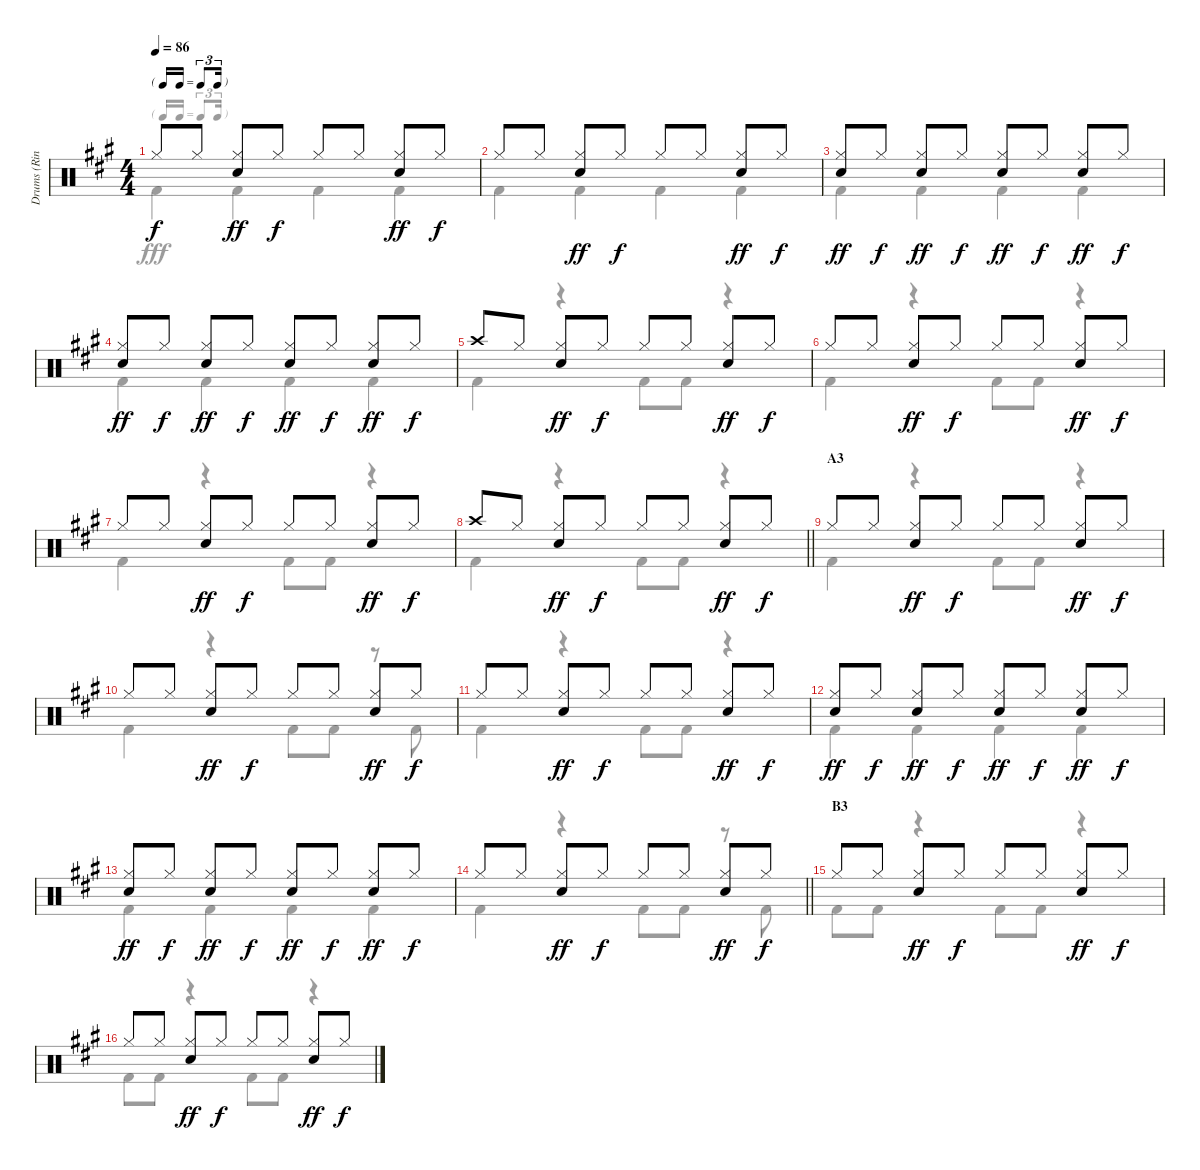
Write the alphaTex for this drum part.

\track ("Drums (Ringo Starr)" "Drums (Rin") {instrument percussion}
\staff {score}
\articulation defaults
\voice
\ts (4 4)
\tf triplet16th
\tempo 86
\clef neutral
\ks a "Hi-Hat (closed)".8{dy f} "Hi-Hat (closed)".8
("Hi-Hat (closed)" "Snare (hit) 2").8{dy ff} "Hi-Hat (closed)".8{dy f} "Hi-Hat (closed)".8 "Hi-Hat (closed)".8 ("Hi-Hat (closed)" "Snare (hit) 2").8{dy ff} "Hi-Hat (closed)".8{dy f} |
"Hi-Hat (closed)".8 "Hi-Hat (closed)".8 ("Hi-Hat (closed)" "Snare (hit) 2").8{dy ff} "Hi-Hat (closed)".8{dy f} "Hi-Hat (closed)".8 "Hi-Hat (closed)".8 ("Hi-Hat (closed)" "Snare (hit) 2").8{dy ff} "Hi-Hat (closed)".8{dy f} |
("Hi-Hat (closed)" "Snare (hit) 2").8{dy ff} "Hi-Hat (closed)".8{dy f} ("Hi-Hat (closed)" "Snare (hit) 2").8{dy ff} "Hi-Hat (closed)".8{dy f} ("Hi-Hat (closed)" "Snare (hit) 2").8{dy ff} "Hi-Hat (closed)".8{dy f} ("Hi-Hat (closed)" "Snare (hit) 2").8{dy ff} "Hi-Hat (closed)".8{dy f} |
("Hi-Hat (closed)" "Snare (hit) 2").8{dy ff} "Hi-Hat (closed)".8{dy f} ("Hi-Hat (closed)" "Snare (hit) 2").8{dy ff} "Hi-Hat (closed)".8{dy f} ("Hi-Hat (closed)" "Snare (hit) 2").8{dy ff} "Hi-Hat (closed)".8{dy f} ("Hi-Hat (closed)" "Snare (hit) 2").8{dy ff} "Hi-Hat (closed)".8{dy f} |
"Crash high (hit)".8 "Hi-Hat (closed)".8 ("Hi-Hat (closed)" "Snare (hit) 2").8{dy ff} "Hi-Hat (closed)".8{dy f} "Hi-Hat (closed)".8 "Hi-Hat (closed)".8 ("Hi-Hat (closed)" "Snare (hit) 2").8{dy ff} "Hi-Hat (closed)".8{dy f} |
"Hi-Hat (closed)".8 "Hi-Hat (closed)".8 ("Hi-Hat (closed)" "Snare (hit) 2").8{dy ff} "Hi-Hat (closed)".8{dy f} "Hi-Hat (closed)".8 "Hi-Hat (closed)".8 ("Hi-Hat (closed)" "Snare (hit) 2").8{dy ff} "Hi-Hat (closed)".8{dy f} |
"Hi-Hat (closed)".8 "Hi-Hat (closed)".8 ("Hi-Hat (closed)" "Snare (hit) 2").8{dy ff} "Hi-Hat (closed)".8{dy f} "Hi-Hat (closed)".8 "Hi-Hat (closed)".8 ("Hi-Hat (closed)" "Snare (hit) 2").8{dy ff} "Hi-Hat (closed)".8{dy f} |
\barLineRight lightlight "Crash high (hit)".8 "Hi-Hat (closed)".8
("Hi-Hat (closed)" "Snare (hit) 2").8{dy ff} "Hi-Hat (closed)".8{dy f} "Hi-Hat (closed)".8 "Hi-Hat (closed)".8 ("Hi-Hat (closed)" "Snare (hit) 2").8{dy ff} "Hi-Hat (closed)".8{dy f} |
\section ("" "A3")
"Hi-Hat (closed)".8 "Hi-Hat (closed)".8 ("Hi-Hat (closed)" "Snare (hit) 2").8{dy ff} "Hi-Hat (closed)".8{dy f} "Hi-Hat (closed)".8 "Hi-Hat (closed)".8 ("Hi-Hat (closed)" "Snare (hit) 2").8{dy ff} "Hi-Hat (closed)".8{dy f} |
"Hi-Hat (closed)".8 "Hi-Hat (closed)".8 ("Hi-Hat (closed)" "Snare (hit) 2").8{dy ff} "Hi-Hat (closed)".8{dy f} "Hi-Hat (closed)".8 "Hi-Hat (closed)".8 ("Hi-Hat (closed)" "Snare (hit) 2").8{dy ff} "Hi-Hat (closed)".8{dy f} |
"Hi-Hat (closed)".8 "Hi-Hat (closed)".8 ("Hi-Hat (closed)" "Snare (hit) 2").8{dy ff} "Hi-Hat (closed)".8{dy f} "Hi-Hat (closed)".8 "Hi-Hat (closed)".8 ("Hi-Hat (closed)" "Snare (hit) 2").8{dy ff} "Hi-Hat (closed)".8{dy f} |
("Hi-Hat (closed)" "Snare (hit) 2").8{dy ff} "Hi-Hat (closed)".8{dy f} ("Hi-Hat (closed)" "Snare (hit) 2").8{dy ff} "Hi-Hat (closed)".8{dy f} ("Hi-Hat (closed)" "Snare (hit) 2").8{dy ff} "Hi-Hat (closed)".8{dy f} ("Hi-Hat (closed)" "Snare (hit) 2").8{dy ff} "Hi-Hat (closed)".8{dy f} |
("Hi-Hat (closed)" "Snare (hit) 2").8{dy ff} "Hi-Hat (closed)".8{dy f} ("Hi-Hat (closed)" "Snare (hit) 2").8{dy ff} "Hi-Hat (closed)".8{dy f} ("Hi-Hat (closed)" "Snare (hit) 2").8{dy ff} "Hi-Hat (closed)".8{dy f} ("Hi-Hat (closed)" "Snare (hit) 2").8{dy ff} "Hi-Hat (closed)".8{dy f} |
\barLineRight lightlight "Hi-Hat (closed)".8 "Hi-Hat (closed)".8
("Hi-Hat (closed)" "Snare (hit) 2").8{dy ff} "Hi-Hat (closed)".8{dy f} "Hi-Hat (closed)".8 "Hi-Hat (closed)".8 ("Hi-Hat (closed)" "Snare (hit) 2").8{dy ff} "Hi-Hat (closed)".8{dy f} |
\section ("" "B3")
"Hi-Hat (closed)".8 "Hi-Hat (closed)".8 ("Hi-Hat (closed)" "Snare (hit) 2").8{dy ff} "Hi-Hat (closed)".8{dy f} "Hi-Hat (closed)".8 "Hi-Hat (closed)".8 ("Hi-Hat (closed)" "Snare (hit) 2").8{dy ff} "Hi-Hat (closed)".8{dy f} |
"Hi-Hat (closed)".8 "Hi-Hat (closed)".8 ("Hi-Hat (closed)" "Snare (hit) 2").8{dy ff} "Hi-Hat (closed)".8{dy f} "Hi-Hat (closed)".8 "Hi-Hat (closed)".8 ("Hi-Hat (closed)" "Snare (hit) 2").8{dy ff} "Hi-Hat (closed)".8{dy f}
\voice
\clef neutral
\ottava regular
\simile none
\ks a "Kick (hit) 2".4{dy fff} "Kick (hit) 2".4 "Kick (hit) 2".4 "Kick (hit) 2".4
|
"Kick (hit) 2".4 "Kick (hit) 2".4 "Kick (hit) 2".4 "Kick (hit) 2".4 |
"Kick (hit) 2".4 "Kick (hit) 2".4 "Kick (hit) 2".4 "Kick (hit) 2".4 |
"Kick (hit) 2".4 "Kick (hit) 2".4 "Kick (hit) 2".4 "Kick (hit) 2".4 |
"Kick (hit) 2".4 r.4 "Kick (hit) 2".8 "Kick (hit) 2".8 r.4 |
"Kick (hit) 2".4 r.4 "Kick (hit) 2".8 "Kick (hit) 2".8 r.4 |
"Kick (hit) 2".4 r.4 "Kick (hit) 2".8 "Kick (hit) 2".8 r.4 |
\barLineRight lightlight "Kick (hit) 2".4
r.4 "Kick (hit) 2".8 "Kick (hit) 2".8 r.4 |
"Kick (hit) 2".4 r.4 "Kick (hit) 2".8 "Kick (hit) 2".8 r.4 |
"Kick (hit) 2".4 r.4 "Kick (hit) 2".8 "Kick (hit) 2".8 r.8 "Kick (hit) 2".8 |
"Kick (hit) 2".4 r.4 "Kick (hit) 2".8 "Kick (hit) 2".8 r.4 |
"Kick (hit) 2".4 "Kick (hit) 2".4 "Kick (hit) 2".4 "Kick (hit) 2".4 |
"Kick (hit) 2".4 "Kick (hit) 2".4 "Kick (hit) 2".4 "Kick (hit) 2".4 |
\barLineRight lightlight "Kick (hit) 2".4
r.4 "Kick (hit) 2".8 "Kick (hit) 2".8 r.8 "Kick (hit) 2".8 |
"Kick (hit) 2".8 "Kick (hit) 2".8 r.4 "Kick (hit) 2".8 "Kick (hit) 2".8 r.4 |
"Kick (hit) 2".8 "Kick (hit) 2".8 r.4 "Kick (hit) 2".8 "Kick (hit) 2".8 r.4
